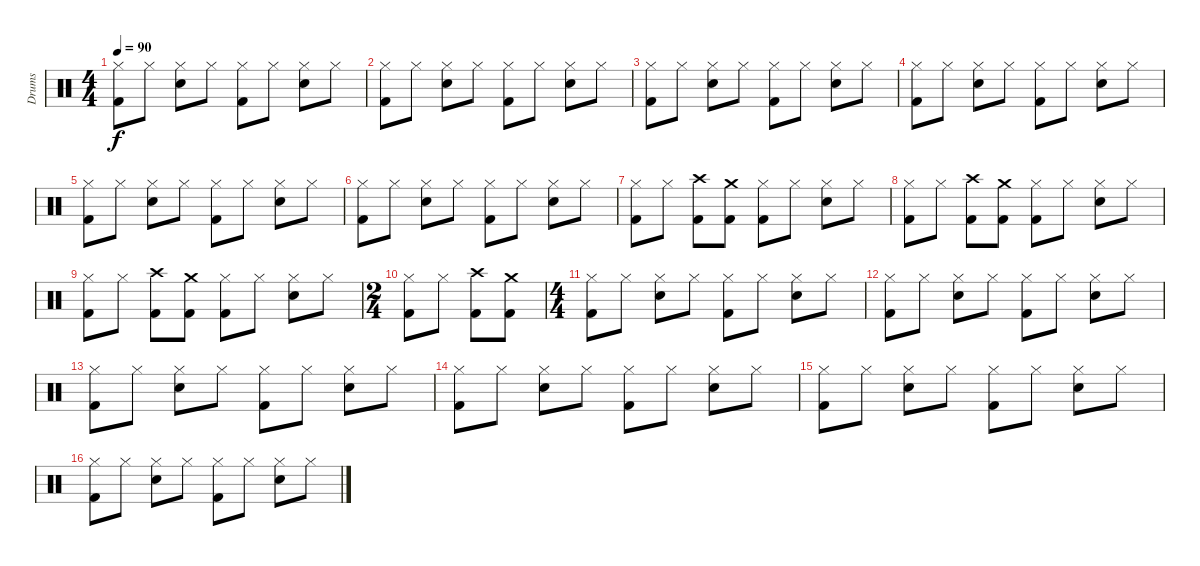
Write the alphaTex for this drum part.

\track ("Drums" "Drums") {instrument percussion}
\staff {score}
\articulation defaults
\ts (4 4)
\tempo 90
\clef neutral
\ks c
("Hi-Hat (closed)" "Kick (hit) 2").8{dy f} "Hi-Hat (closed)".8 ("Hi-Hat (closed)" "Snare (hit) 2").8 "Hi-Hat (closed)".8 ("Hi-Hat (closed)" "Kick (hit) 2").8 "Hi-Hat (closed)".8 ("Hi-Hat (closed)" "Snare (hit) 2").8 "Hi-Hat (closed)".8 |
("Hi-Hat (closed)" "Kick (hit) 2").8 "Hi-Hat (closed)".8 ("Hi-Hat (closed)" "Snare (hit) 2").8 "Hi-Hat (closed)".8 ("Hi-Hat (closed)" "Kick (hit) 2").8 "Hi-Hat (closed)".8 ("Hi-Hat (closed)" "Snare (hit) 2").8 "Hi-Hat (closed)".8 |
("Hi-Hat (closed)" "Kick (hit) 2").8 "Hi-Hat (closed)".8 ("Hi-Hat (closed)" "Snare (hit) 2").8 "Hi-Hat (closed)".8 ("Hi-Hat (closed)" "Kick (hit) 2").8 "Hi-Hat (closed)".8 ("Hi-Hat (closed)" "Snare (hit) 2").8 "Hi-Hat (closed)".8 |
("Hi-Hat (closed)" "Kick (hit) 2").8 "Hi-Hat (closed)".8 ("Hi-Hat (closed)" "Snare (hit) 2").8 "Hi-Hat (closed)".8 ("Hi-Hat (closed)" "Kick (hit) 2").8 "Hi-Hat (closed)".8 ("Hi-Hat (closed)" "Snare (hit) 2").8 "Hi-Hat (closed)".8 |
("Hi-Hat (closed)" "Kick (hit) 2").8 "Hi-Hat (closed)".8 ("Hi-Hat (closed)" "Snare (hit) 2").8 "Hi-Hat (closed)".8 ("Hi-Hat (closed)" "Kick (hit) 2").8 "Hi-Hat (closed)".8 ("Hi-Hat (closed)" "Snare (hit) 2").8 "Hi-Hat (closed)".8 |
("Hi-Hat (closed)" "Kick (hit) 2").8 "Hi-Hat (closed)".8 ("Hi-Hat (closed)" "Snare (hit) 2").8 "Hi-Hat (closed)".8 ("Hi-Hat (closed)" "Kick (hit) 2").8 "Hi-Hat (closed)".8 ("Hi-Hat (closed)" "Snare (hit) 2").8 "Hi-Hat (closed)".8 |
("Hi-Hat (closed)" "Kick (hit) 2").8 "Hi-Hat (closed)".8 ("Crash high (hit)" "Kick (hit) 2").8 ("Crash medium (hit)" "Kick (hit) 2").8 ("Hi-Hat (closed)" "Kick (hit) 2").8 "Hi-Hat (closed)".8 ("Hi-Hat (closed)" "Snare (hit) 2").8 "Hi-Hat (closed)".8 |
("Hi-Hat (closed)" "Kick (hit) 2").8 "Hi-Hat (closed)".8 ("Crash high (hit)" "Kick (hit) 2").8 ("Crash medium (hit)" "Kick (hit) 2").8 ("Hi-Hat (closed)" "Kick (hit) 2").8 "Hi-Hat (closed)".8 ("Hi-Hat (closed)" "Snare (hit) 2").8 "Hi-Hat (closed)".8 |
("Hi-Hat (closed)" "Kick (hit) 2").8 "Hi-Hat (closed)".8 ("Crash high (hit)" "Kick (hit) 2").8 ("Crash medium (hit)" "Kick (hit) 2").8 ("Hi-Hat (closed)" "Kick (hit) 2").8 "Hi-Hat (closed)".8 ("Hi-Hat (closed)" "Snare (hit) 2").8 "Hi-Hat (closed)".8 |
\ts (2 4)
("Hi-Hat (closed)" "Kick (hit) 2").8 "Hi-Hat (closed)".8 ("Crash high (hit)" "Kick (hit) 2").8 ("Crash medium (hit)" "Kick (hit) 2").8 |
\ts (4 4)
("Hi-Hat (closed)" "Kick (hit) 2").8 "Hi-Hat (closed)".8 ("Hi-Hat (closed)" "Snare (hit) 2").8 "Hi-Hat (closed)".8 ("Hi-Hat (closed)" "Kick (hit) 2").8 "Hi-Hat (closed)".8 ("Hi-Hat (closed)" "Snare (hit) 2").8 "Hi-Hat (closed)".8 |
("Hi-Hat (closed)" "Kick (hit) 2").8 "Hi-Hat (closed)".8 ("Hi-Hat (closed)" "Snare (hit) 2").8 "Hi-Hat (closed)".8 ("Hi-Hat (closed)" "Kick (hit) 2").8 "Hi-Hat (closed)".8 ("Hi-Hat (closed)" "Snare (hit) 2").8 "Hi-Hat (closed)".8 |
("Hi-Hat (closed)" "Kick (hit) 2").8 "Hi-Hat (closed)".8 ("Hi-Hat (closed)" "Snare (hit) 2").8 "Hi-Hat (closed)".8 ("Hi-Hat (closed)" "Kick (hit) 2").8 "Hi-Hat (closed)".8 ("Hi-Hat (closed)" "Snare (hit) 2").8 "Hi-Hat (closed)".8 |
("Hi-Hat (closed)" "Kick (hit) 2").8 "Hi-Hat (closed)".8 ("Hi-Hat (closed)" "Snare (hit) 2").8 "Hi-Hat (closed)".8 ("Hi-Hat (closed)" "Kick (hit) 2").8 "Hi-Hat (closed)".8 ("Hi-Hat (closed)" "Snare (hit) 2").8 "Hi-Hat (closed)".8 |
("Hi-Hat (closed)" "Kick (hit) 2").8 "Hi-Hat (closed)".8 ("Hi-Hat (closed)" "Snare (hit) 2").8 "Hi-Hat (closed)".8 ("Hi-Hat (closed)" "Kick (hit) 2").8 "Hi-Hat (closed)".8 ("Hi-Hat (closed)" "Snare (hit) 2").8 "Hi-Hat (closed)".8 |
("Hi-Hat (closed)" "Kick (hit) 2").8 "Hi-Hat (closed)".8 ("Hi-Hat (closed)" "Snare (hit) 2").8 "Hi-Hat (closed)".8 ("Hi-Hat (closed)" "Kick (hit) 2").8 "Hi-Hat (closed)".8 ("Hi-Hat (closed)" "Snare (hit) 2").8 "Hi-Hat (closed)".8
